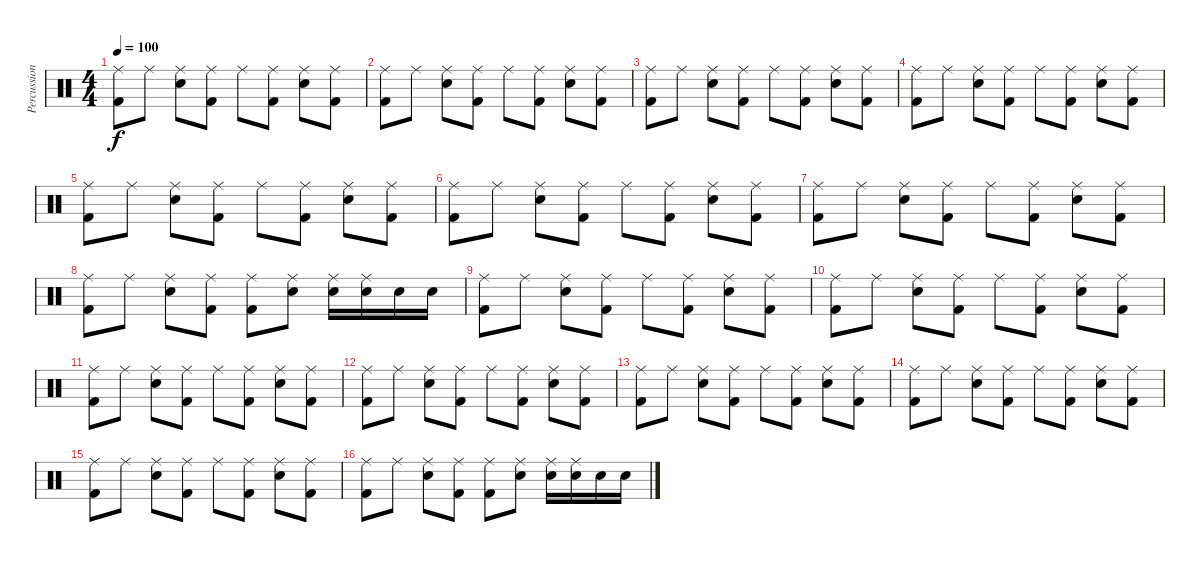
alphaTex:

\track ("Percussion" "Percussion") {instrument percussion}
\staff {score}
\articulation defaults
\ts (4 4)
\tempo 100
\clef neutral
\ks c
("Kick (hit) 2" "Ride (middle)").8{dy f} "Ride (middle)".8 ("Snare (hit) 2" "Ride (middle)").8 ("Kick (hit) 2" "Ride (middle)").8 "Ride (middle)".8 ("Kick (hit) 2" "Ride (middle)").8 ("Snare (hit) 2" "Ride (middle)").8 ("Kick (hit) 2" "Ride (middle)").8 |
("Kick (hit) 2" "Ride (middle)").8 "Ride (middle)".8 ("Snare (hit) 2" "Ride (middle)").8 ("Kick (hit) 2" "Ride (middle)").8 "Ride (middle)".8 ("Kick (hit) 2" "Ride (middle)").8 ("Snare (hit) 2" "Ride (middle)").8 ("Kick (hit) 2" "Ride (middle)").8 |
("Kick (hit) 2" "Ride (middle)").8 "Ride (middle)".8 ("Snare (hit) 2" "Ride (middle)").8 ("Kick (hit) 2" "Ride (middle)").8 "Ride (middle)".8 ("Kick (hit) 2" "Ride (middle)").8 ("Snare (hit) 2" "Ride (middle)").8 ("Kick (hit) 2" "Ride (middle)").8 |
("Kick (hit) 2" "Ride (middle)").8 "Ride (middle)".8 ("Snare (hit) 2" "Ride (middle)").8 ("Kick (hit) 2" "Ride (middle)").8 "Ride (middle)".8 ("Kick (hit) 2" "Ride (middle)").8 ("Snare (hit) 2" "Ride (middle)").8 ("Kick (hit) 2" "Ride (middle)").8 |
("Kick (hit) 2" "Ride (middle)").8 "Ride (middle)".8 ("Snare (hit) 2" "Ride (middle)").8 ("Kick (hit) 2" "Ride (middle)").8 "Ride (middle)".8 ("Kick (hit) 2" "Ride (middle)").8 ("Snare (hit) 2" "Ride (middle)").8 ("Kick (hit) 2" "Ride (middle)").8 |
("Kick (hit) 2" "Ride (middle)").8 "Ride (middle)".8 ("Snare (hit) 2" "Ride (middle)").8 ("Kick (hit) 2" "Ride (middle)").8 "Ride (middle)".8 ("Kick (hit) 2" "Ride (middle)").8 ("Snare (hit) 2" "Ride (middle)").8 ("Kick (hit) 2" "Ride (middle)").8 |
("Kick (hit) 2" "Ride (middle)").8 "Ride (middle)".8 ("Snare (hit) 2" "Ride (middle)").8 ("Kick (hit) 2" "Ride (middle)").8 "Ride (middle)".8 ("Kick (hit) 2" "Ride (middle)").8 ("Snare (hit) 2" "Ride (middle)").8 ("Kick (hit) 2" "Ride (middle)").8 |
("Kick (hit) 2" "Ride (middle)").8 "Ride (middle)".8 ("Snare (hit) 2" "Ride (middle)").8 ("Kick (hit) 2" "Ride (middle)").8 ("Kick (hit) 2" "Ride (middle)").8 ("Snare (hit) 2" "Ride (middle)").8 ("Snare (hit) 2" "Ride (middle)").16 ("Snare (hit) 2" "Ride (middle)").16 "Snare (hit) 2".16 "Snare (hit) 2".16 |
("Kick (hit) 2" "Ride (middle)").8 "Ride (middle)".8 ("Snare (hit) 2" "Ride (middle)").8 ("Kick (hit) 2" "Ride (middle)").8 "Ride (middle)".8 ("Kick (hit) 2" "Ride (middle)").8 ("Snare (hit) 2" "Ride (middle)").8 ("Kick (hit) 2" "Ride (middle)").8 |
("Kick (hit) 2" "Ride (middle)").8 "Ride (middle)".8 ("Snare (hit) 2" "Ride (middle)").8 ("Kick (hit) 2" "Ride (middle)").8 "Ride (middle)".8 ("Kick (hit) 2" "Ride (middle)").8 ("Snare (hit) 2" "Ride (middle)").8 ("Kick (hit) 2" "Ride (middle)").8 |
("Kick (hit) 2" "Ride (middle)").8 "Ride (middle)".8 ("Snare (hit) 2" "Ride (middle)").8 ("Kick (hit) 2" "Ride (middle)").8 "Ride (middle)".8 ("Kick (hit) 2" "Ride (middle)").8 ("Snare (hit) 2" "Ride (middle)").8 ("Kick (hit) 2" "Ride (middle)").8 |
("Kick (hit) 2" "Ride (middle)").8 "Ride (middle)".8 ("Snare (hit) 2" "Ride (middle)").8 ("Kick (hit) 2" "Ride (middle)").8 "Ride (middle)".8 ("Kick (hit) 2" "Ride (middle)").8 ("Snare (hit) 2" "Ride (middle)").8 ("Kick (hit) 2" "Ride (middle)").8 |
("Kick (hit) 2" "Ride (middle)").8 "Ride (middle)".8 ("Snare (hit) 2" "Ride (middle)").8 ("Kick (hit) 2" "Ride (middle)").8 "Ride (middle)".8 ("Kick (hit) 2" "Ride (middle)").8 ("Snare (hit) 2" "Ride (middle)").8 ("Kick (hit) 2" "Ride (middle)").8 |
("Kick (hit) 2" "Ride (middle)").8 "Ride (middle)".8 ("Snare (hit) 2" "Ride (middle)").8 ("Kick (hit) 2" "Ride (middle)").8 "Ride (middle)".8 ("Kick (hit) 2" "Ride (middle)").8 ("Snare (hit) 2" "Ride (middle)").8 ("Kick (hit) 2" "Ride (middle)").8 |
("Kick (hit) 2" "Ride (middle)").8 "Ride (middle)".8 ("Snare (hit) 2" "Ride (middle)").8 ("Kick (hit) 2" "Ride (middle)").8 "Ride (middle)".8 ("Kick (hit) 2" "Ride (middle)").8 ("Snare (hit) 2" "Ride (middle)").8 ("Kick (hit) 2" "Ride (middle)").8 |
("Kick (hit) 2" "Ride (middle)").8 "Ride (middle)".8 ("Snare (hit) 2" "Ride (middle)").8 ("Kick (hit) 2" "Ride (middle)").8 ("Kick (hit) 2" "Ride (middle)").8 ("Snare (hit) 2" "Ride (middle)").8 ("Snare (hit) 2" "Ride (middle)").16 ("Snare (hit) 2" "Ride (middle)").16 "Snare (hit) 2".16 "Snare (hit) 2".16
